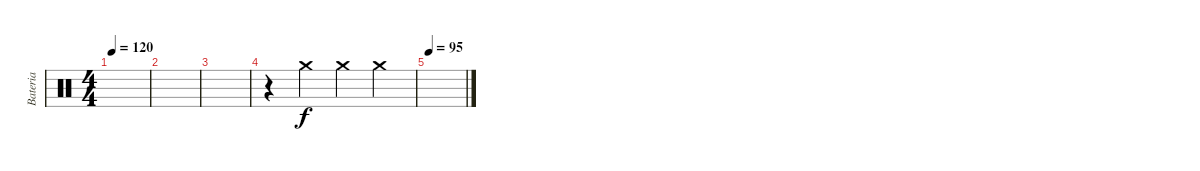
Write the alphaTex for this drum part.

\track ("Bateria" "Bateria") {instrument percussion}
\staff {score}
\articulation defaults
\ts (4 4)
\tempo 120
\clef neutral
\ks c
|
|
|
r.4 "Crash medium (hit)".4 "Crash medium (hit)".4 "Crash medium (hit)".4 |
\tempo 95
